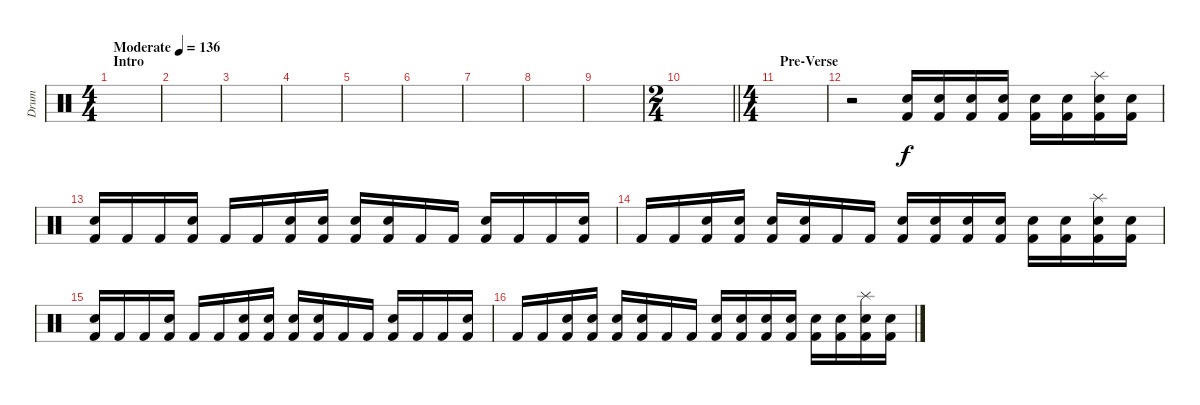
\track ("Drum" "Drum") {instrument percussion}
\staff {score}
\articulation defaults
\ts (4 4)
\section ("" "Intro")
\tempo (136 "Moderate")
\clef neutral
\ks c
|
|
|
|
|
|
|
|
|
\ts (2 4)
\barLineRight lightlight
|
\ts (4 4)
\section ("" "Pre-Verse")
|
r.2 ("Snare (hit) 2" "Kick (hit) 2").16 ("Snare (hit) 2" "Kick (hit) 2").16 ("Snare (hit) 2" "Kick (hit) 2").16 ("Snare (hit) 2" "Kick (hit) 2").16 ("Snare (hit) 2" "Kick (hit) 2").16 ("Snare (hit) 2" "Kick (hit) 2").16 ("Splash (hit)" "Snare (hit) 2" "Kick (hit) 2").16 ("Snare (hit) 2" "Kick (hit) 2").16 |
("Snare (hit) 2" "Kick (hit) 2").16 "Kick (hit) 2".16 "Kick (hit) 2".16 ("Snare (hit) 2" "Kick (hit) 2").16 "Kick (hit) 2".16 "Kick (hit) 2".16 ("Snare (hit) 2" "Kick (hit) 2").16 ("Snare (hit) 2" "Kick (hit) 2").16 ("Snare (hit) 2" "Kick (hit) 2").16 ("Snare (hit) 2" "Kick (hit) 2").16 "Kick (hit) 2".16 "Kick (hit) 2".16 ("Snare (hit) 2" "Kick (hit) 2").16 "Kick (hit) 2".16 "Kick (hit) 2".16 ("Snare (hit) 2" "Kick (hit) 2").16 |
"Kick (hit) 2".16 "Kick (hit) 2".16 ("Snare (hit) 2" "Kick (hit) 2").16 ("Snare (hit) 2" "Kick (hit) 2").16 ("Snare (hit) 2" "Kick (hit) 2").16 ("Snare (hit) 2" "Kick (hit) 2").16 "Kick (hit) 2".16 "Kick (hit) 2".16 ("Snare (hit) 2" "Kick (hit) 2").16 ("Snare (hit) 2" "Kick (hit) 2").16 ("Snare (hit) 2" "Kick (hit) 2").16 ("Snare (hit) 2" "Kick (hit) 2").16 ("Snare (hit) 2" "Kick (hit) 2").16 ("Snare (hit) 2" "Kick (hit) 2").16 ("Splash (hit)" "Snare (hit) 2" "Kick (hit) 2").16 ("Snare (hit) 2" "Kick (hit) 2").16 |
("Snare (hit) 2" "Kick (hit) 2").16 "Kick (hit) 2".16 "Kick (hit) 2".16 ("Snare (hit) 2" "Kick (hit) 2").16 "Kick (hit) 2".16 "Kick (hit) 2".16 ("Snare (hit) 2" "Kick (hit) 2").16 ("Snare (hit) 2" "Kick (hit) 2").16 ("Snare (hit) 2" "Kick (hit) 2").16 ("Snare (hit) 2" "Kick (hit) 2").16 "Kick (hit) 2".16 "Kick (hit) 2".16 ("Snare (hit) 2" "Kick (hit) 2").16 "Kick (hit) 2".16 "Kick (hit) 2".16 ("Snare (hit) 2" "Kick (hit) 2").16 |
"Kick (hit) 2".16 "Kick (hit) 2".16 ("Snare (hit) 2" "Kick (hit) 2").16 ("Snare (hit) 2" "Kick (hit) 2").16 ("Snare (hit) 2" "Kick (hit) 2").16 ("Snare (hit) 2" "Kick (hit) 2").16 "Kick (hit) 2".16 "Kick (hit) 2".16 ("Snare (hit) 2" "Kick (hit) 2").16 ("Snare (hit) 2" "Kick (hit) 2").16 ("Snare (hit) 2" "Kick (hit) 2").16 ("Snare (hit) 2" "Kick (hit) 2").16 ("Snare (hit) 2" "Kick (hit) 2").16 ("Snare (hit) 2" "Kick (hit) 2").16 ("Splash (hit)" "Snare (hit) 2" "Kick (hit) 2").16 ("Snare (hit) 2" "Kick (hit) 2").16
